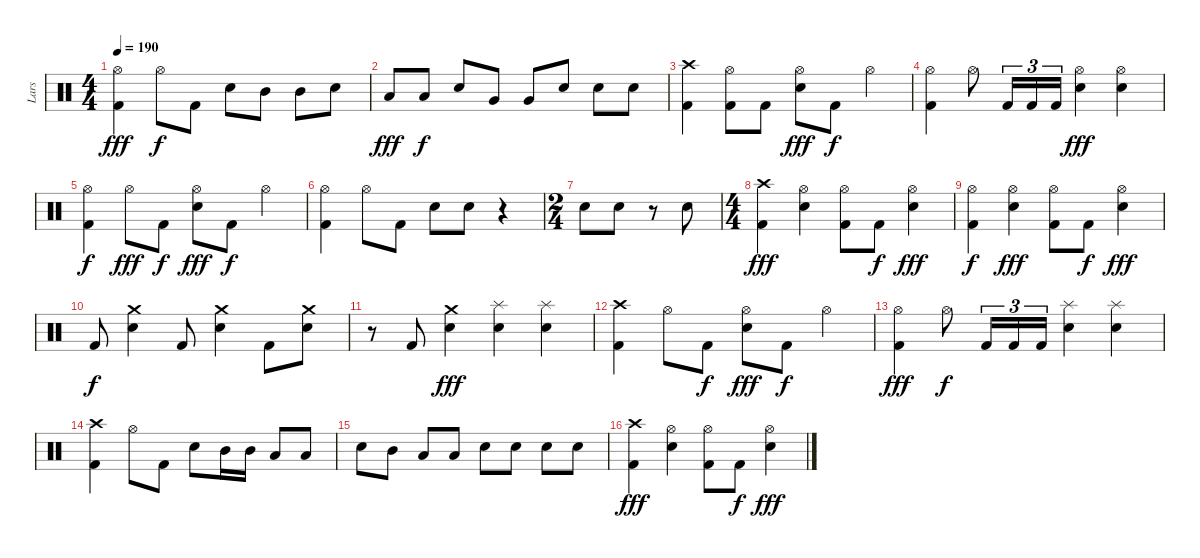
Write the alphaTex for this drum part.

\track ("Lars" "Lars") {instrument percussion}
\staff {score}
\articulation defaults
\ts (4 4)
\tempo 190
\clef neutral
\ks c
("Hi-Hat (open)" "Kick (hit) 2").4{dy fff} "Hi-Hat (open)".8{dy f} "Kick (hit) 2".8 "Snare (hit) 2".8 "Mid Tom (hit)".8 "Mid Tom (hit)".8 "Snare (hit) 2".8 |
"Low Tom (hit)".8{dy fff} "Low Tom (hit)".8{dy f} "Snare (hit) 2".8 "Very Low Tom (hit)".8 "Very Low Tom (hit)".8 "Snare (hit) 2".8 "Snare (hit) 2".8 "Snare (hit) 2".8 |
("Crash high (hit)" "Kick (hit) 2").4 ("Hi-Hat (open)" "Kick (hit) 2").8 "Kick (hit) 2".8 ("Hi-Hat (open)" "Snare (hit) 2").8{dy fff} "Kick (hit) 2".8{dy f} "Hi-Hat (open)".4 |
("Hi-Hat (open)" "Kick (hit) 2").4 "Hi-Hat (open)".8 "Kick (hit) 2".16{tu (3 2)} "Kick (hit) 2".16{tu (3 2)} "Kick (hit) 2".16{tu (3 2)} ("Hi-Hat (open)" "Snare (hit) 2").4{dy fff} ("Hi-Hat (open)" "Snare (hit) 2").4 |
("Hi-Hat (open)" "Kick (hit) 2").4{dy f} "Hi-Hat (open)".8{dy fff} "Kick (hit) 2".8{dy f} ("Hi-Hat (open)" "Snare (hit) 2").8{dy fff} "Kick (hit) 2".8{dy f} "Hi-Hat (open)".4 |
("Hi-Hat (open)" "Kick (hit) 2").4 "Hi-Hat (open)".8 "Kick (hit) 2".8 "Snare (hit) 2".8 "Snare (hit) 2".8 r.4 |
\ts (2 4)
"Snare (hit) 2".8 "Snare (hit) 2".8 r.8 "Snare (hit) 2".8 |
\ts (4 4)
("Crash high (hit)" "Kick (hit) 2").4{dy fff} ("Hi-Hat (open)" "Snare (hit) 2").4 ("Hi-Hat (open)" "Kick (hit) 2").8 "Kick (hit) 2".8{dy f} ("Hi-Hat (open)" "Snare (hit) 2").4{dy fff} |
("Hi-Hat (open)" "Kick (hit) 2").4{dy f} ("Hi-Hat (open)" "Snare (hit) 2").4{dy fff} ("Hi-Hat (open)" "Kick (hit) 2").8 "Kick (hit) 2".8{dy f} ("Hi-Hat (open)" "Snare (hit) 2").4{dy fff} |
"Kick (hit) 2".8{dy f} ("Crash medium (hit)" "Snare (hit) 2").4 "Kick (hit) 2".8 ("Crash medium (hit)" "Snare (hit) 2").4 "Kick (hit) 2".8 ("Crash medium (hit)" "Snare (hit) 2").8 |
r.8 "Kick (hit) 2".8 ("Crash medium (hit)" "Snare (hit) 2").4{dy fff} ("Splash (hit)" "Snare (hit) 2").4 ("Splash (hit)" "Snare (hit) 2").4 |
("Crash high (hit)" "Kick (hit) 2").4 "Hi-Hat (open)".8 "Kick (hit) 2".8{dy f} ("Hi-Hat (open)" "Snare (hit) 2").8{dy fff} "Kick (hit) 2".8{dy f} "Hi-Hat (open)".4 |
("Hi-Hat (open)" "Kick (hit) 2").4{dy fff} "Hi-Hat (open)".8{dy f} "Kick (hit) 2".16{tu (3 2)} "Kick (hit) 2".16{tu (3 2)} "Kick (hit) 2".16{tu (3 2)} ("Splash (hit)" "Snare (hit) 2").4 ("Splash (hit)" "Snare (hit) 2").4 |
("Crash high (hit)" "Kick (hit) 2").4 "Hi-Hat (open)".8 "Kick (hit) 2".8 "Snare (hit) 2".8 "Mid Tom (hit)".16 "Mid Tom (hit)".16 "Low Tom (hit)".8 "Low Tom (hit)".8 |
"Snare (hit) 2".8 "Mid Tom (hit)".8 "Low Tom (hit)".8 "Low Tom (hit)".8 "Snare (hit) 2".8 "Snare (hit) 2".8 "Snare (hit) 2".8 "Snare (hit) 2".8 |
("Crash high (hit)" "Kick (hit) 2").4{dy fff} ("Hi-Hat (open)" "Snare (hit) 2").4 ("Hi-Hat (open)" "Kick (hit) 2").8 "Kick (hit) 2".8{dy f} ("Hi-Hat (open)" "Snare (hit) 2").4{dy fff}
